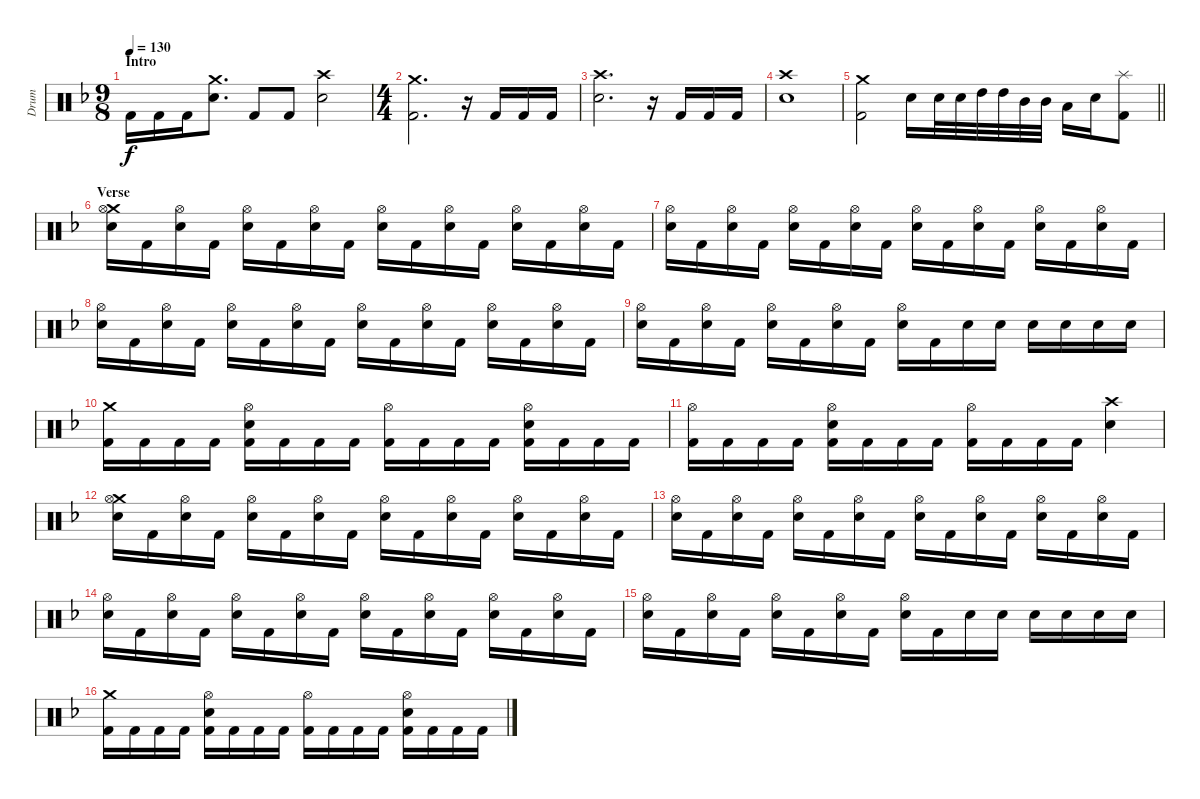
\track ("Drum" "Drum") {instrument percussion}
\staff {score}
\articulation defaults
\ts (9 8)
\section ("" "Intro")
\tempo 130
\clef neutral
\ks f "Kick (hit) 2".16{dy f} "Kick (hit) 2".16 "Kick (hit) 2".16
("Crash medium (hit)" "Electric Snare (hit)").8{d} "Kick (hit) 2".8 "Kick (hit) 2".8 ("Crash high (hit)" "Electric Snare (hit)").2 |
\ts (4 4)
("Crash medium (hit)" "Kick (hit) 2").2{d} r.16 "Kick (hit) 2".16 "Kick (hit) 2".16 "Kick (hit) 2".16 |
("Crash high (hit)" "Electric Snare (hit)").2{d} r.16 "Kick (hit) 2".16 "Kick (hit) 2".16 "Kick (hit) 2".16 |
("Crash high (hit)" "Electric Snare (hit)").1 |
\barLineRight lightlight
("Crash medium (hit)" "Kick (hit) 2").2 "Electric Snare (hit)".16 "Electric Snare (hit)".32 "Electric Snare (hit)".32 "High Tom (hit)".32 "High Tom (hit)".32 "Mid Tom (hit)".32 "Mid Tom (hit)".32 "Low Tom (hit)".16 "Electric Snare (hit)".16 ("Splash (hit)" "Kick (hit) 2").8 |
\section ("" "Verse")
("Crash medium (hit)" "Hi-Hat (open)" "Electric Snare (hit)").16 "Kick (hit) 2".16 ("Hi-Hat (open)" "Electric Snare (hit)").16 "Kick (hit) 2".16 ("Hi-Hat (open)" "Electric Snare (hit)").16 "Kick (hit) 2".16 ("Hi-Hat (open)" "Electric Snare (hit)").16 "Kick (hit) 2".16 ("Hi-Hat (open)" "Electric Snare (hit)").16 "Kick (hit) 2".16 ("Hi-Hat (open)" "Electric Snare (hit)").16 "Kick (hit) 2".16 ("Hi-Hat (open)" "Electric Snare (hit)").16 "Kick (hit) 2".16 ("Hi-Hat (open)" "Electric Snare (hit)").16 "Kick (hit) 2".16 |
("Hi-Hat (open)" "Electric Snare (hit)").16 "Kick (hit) 2".16 ("Hi-Hat (open)" "Electric Snare (hit)").16 "Kick (hit) 2".16 ("Hi-Hat (open)" "Electric Snare (hit)").16 "Kick (hit) 2".16 ("Hi-Hat (open)" "Electric Snare (hit)").16 "Kick (hit) 2".16 ("Hi-Hat (open)" "Electric Snare (hit)").16 "Kick (hit) 2".16 ("Hi-Hat (open)" "Electric Snare (hit)").16 "Kick (hit) 2".16 ("Hi-Hat (open)" "Electric Snare (hit)").16 "Kick (hit) 2".16 ("Hi-Hat (open)" "Electric Snare (hit)").16 "Kick (hit) 2".16 |
("Hi-Hat (open)" "Electric Snare (hit)").16 "Kick (hit) 2".16 ("Hi-Hat (open)" "Electric Snare (hit)").16 "Kick (hit) 2".16 ("Hi-Hat (open)" "Electric Snare (hit)").16 "Kick (hit) 2".16 ("Hi-Hat (open)" "Electric Snare (hit)").16 "Kick (hit) 2".16 ("Hi-Hat (open)" "Electric Snare (hit)").16 "Kick (hit) 2".16 ("Hi-Hat (open)" "Electric Snare (hit)").16 "Kick (hit) 2".16 ("Hi-Hat (open)" "Electric Snare (hit)").16 "Kick (hit) 2".16 ("Hi-Hat (open)" "Electric Snare (hit)").16 "Kick (hit) 2".16 |
("Hi-Hat (open)" "Electric Snare (hit)").16 "Kick (hit) 2".16 ("Hi-Hat (open)" "Electric Snare (hit)").16 "Kick (hit) 2".16 ("Hi-Hat (open)" "Electric Snare (hit)").16 "Kick (hit) 2".16 ("Hi-Hat (open)" "Electric Snare (hit)").16 "Kick (hit) 2".16 ("Hi-Hat (open)" "Electric Snare (hit)").16 "Kick (hit) 2".16 "Electric Snare (hit)".16 "Electric Snare (hit)".16 "Electric Snare (hit)".16 "Electric Snare (hit)".16 "Electric Snare (hit)".16 "Electric Snare (hit)".16 |
("Crash medium (hit)" "Kick (hit) 2").16 "Kick (hit) 2".16 "Kick (hit) 2".16 "Kick (hit) 2".16 ("Hi-Hat (open)" "Electric Snare (hit)" "Kick (hit) 2").16 "Kick (hit) 2".16 "Kick (hit) 2".16 "Kick (hit) 2".16 ("Hi-Hat (open)" "Kick (hit) 2").16 "Kick (hit) 2".16 "Kick (hit) 2".16 "Kick (hit) 2".16 ("Hi-Hat (open)" "Electric Snare (hit)" "Kick (hit) 2").16 "Kick (hit) 2".16 "Kick (hit) 2".16 "Kick (hit) 2".16 |
("Hi-Hat (open)" "Kick (hit) 2").16 "Kick (hit) 2".16 "Kick (hit) 2".16 "Kick (hit) 2".16 ("Hi-Hat (open)" "Electric Snare (hit)" "Kick (hit) 2").16 "Kick (hit) 2".16 "Kick (hit) 2".16 "Kick (hit) 2".16 ("Hi-Hat (open)" "Kick (hit) 2").16 "Kick (hit) 2".16 "Kick (hit) 2".16 "Kick (hit) 2".16 ("Crash high (hit)" "Electric Snare (hit)").4 |
("Crash medium (hit)" "Hi-Hat (open)" "Electric Snare (hit)").16 "Kick (hit) 2".16 ("Hi-Hat (open)" "Electric Snare (hit)").16 "Kick (hit) 2".16 ("Hi-Hat (open)" "Electric Snare (hit)").16 "Kick (hit) 2".16 ("Hi-Hat (open)" "Electric Snare (hit)").16 "Kick (hit) 2".16 ("Hi-Hat (open)" "Electric Snare (hit)").16 "Kick (hit) 2".16 ("Hi-Hat (open)" "Electric Snare (hit)").16 "Kick (hit) 2".16 ("Hi-Hat (open)" "Electric Snare (hit)").16 "Kick (hit) 2".16 ("Hi-Hat (open)" "Electric Snare (hit)").16 "Kick (hit) 2".16 |
("Hi-Hat (open)" "Electric Snare (hit)").16 "Kick (hit) 2".16 ("Hi-Hat (open)" "Electric Snare (hit)").16 "Kick (hit) 2".16 ("Hi-Hat (open)" "Electric Snare (hit)").16 "Kick (hit) 2".16 ("Hi-Hat (open)" "Electric Snare (hit)").16 "Kick (hit) 2".16 ("Hi-Hat (open)" "Electric Snare (hit)").16 "Kick (hit) 2".16 ("Hi-Hat (open)" "Electric Snare (hit)").16 "Kick (hit) 2".16 ("Hi-Hat (open)" "Electric Snare (hit)").16 "Kick (hit) 2".16 ("Hi-Hat (open)" "Electric Snare (hit)").16 "Kick (hit) 2".16 |
("Hi-Hat (open)" "Electric Snare (hit)").16 "Kick (hit) 2".16 ("Hi-Hat (open)" "Electric Snare (hit)").16 "Kick (hit) 2".16 ("Hi-Hat (open)" "Electric Snare (hit)").16 "Kick (hit) 2".16 ("Hi-Hat (open)" "Electric Snare (hit)").16 "Kick (hit) 2".16 ("Hi-Hat (open)" "Electric Snare (hit)").16 "Kick (hit) 2".16 ("Hi-Hat (open)" "Electric Snare (hit)").16 "Kick (hit) 2".16 ("Hi-Hat (open)" "Electric Snare (hit)").16 "Kick (hit) 2".16 ("Hi-Hat (open)" "Electric Snare (hit)").16 "Kick (hit) 2".16 |
("Hi-Hat (open)" "Electric Snare (hit)").16 "Kick (hit) 2".16 ("Hi-Hat (open)" "Electric Snare (hit)").16 "Kick (hit) 2".16 ("Hi-Hat (open)" "Electric Snare (hit)").16 "Kick (hit) 2".16 ("Hi-Hat (open)" "Electric Snare (hit)").16 "Kick (hit) 2".16 ("Hi-Hat (open)" "Electric Snare (hit)").16 "Kick (hit) 2".16 "Electric Snare (hit)".16 "Electric Snare (hit)".16 "Electric Snare (hit)".16 "Electric Snare (hit)".16 "Electric Snare (hit)".16 "Electric Snare (hit)".16 |
("Crash medium (hit)" "Kick (hit) 2").16 "Kick (hit) 2".16 "Kick (hit) 2".16 "Kick (hit) 2".16 ("Hi-Hat (open)" "Electric Snare (hit)" "Kick (hit) 2").16 "Kick (hit) 2".16 "Kick (hit) 2".16 "Kick (hit) 2".16 ("Hi-Hat (open)" "Kick (hit) 2").16 "Kick (hit) 2".16 "Kick (hit) 2".16 "Kick (hit) 2".16 ("Hi-Hat (open)" "Electric Snare (hit)" "Kick (hit) 2").16 "Kick (hit) 2".16 "Kick (hit) 2".16 "Kick (hit) 2".16
